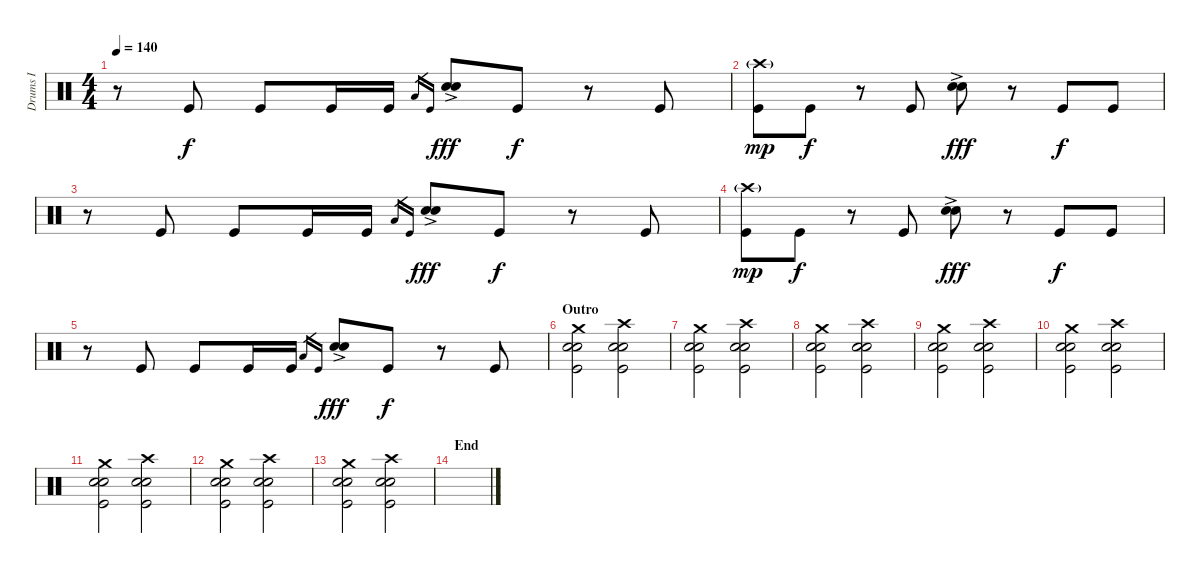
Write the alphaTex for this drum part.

\track ("Drums I" "Drums I") {instrument percussion}
\staff {score}
\articulation defaults
\ts (4 4)
\tempo 140
\clef neutral
\ks c
r.8{dy f} "Kick (hit)".8 "Kick (hit)".8 "Kick (hit)".16 "Kick (hit)".16 "Low Floor Tom (hit)".16{gr} "Kick (hit)".16{gr} ("Electric Snare (hit)"{ac} "Snare (hit) 2").8{dy fff} "Kick (hit)".8{dy f} r.8 "Kick (hit)".8 |
("Crash high (hit)"{g} "Kick (hit)").8{dy mp} "Kick (hit)".8{dy f} r.8 "Kick (hit)".8 ("Electric Snare (hit)"{ac} "Snare (hit) 2").8{dy fff} r.8 "Kick (hit)".8{dy f} "Kick (hit)".8 |
r.8 "Kick (hit)".8 "Kick (hit)".8 "Kick (hit)".16 "Kick (hit)".16 "Low Floor Tom (hit)".16{gr} "Kick (hit)".16{gr} ("Electric Snare (hit)"{ac} "Snare (hit) 2").8{dy fff} "Kick (hit)".8{dy f} r.8 "Kick (hit)".8 |
("Crash high (hit)"{g} "Kick (hit)").8{dy mp} "Kick (hit)".8{dy f} r.8 "Kick (hit)".8 ("Electric Snare (hit)"{ac} "Snare (hit) 2").8{dy fff} r.8 "Kick (hit)".8{dy f} "Kick (hit)".8 |
r.8 "Kick (hit)".8 "Kick (hit)".8 "Kick (hit)".16 "Kick (hit)".16 "Low Floor Tom (hit)".16{gr} "Kick (hit)".16{gr} ("Electric Snare (hit)"{ac} "Snare (hit) 2").8{dy fff} "Kick (hit)".8{dy f} r.8 "Kick (hit)".8 |
\section ("" "Outro")
("Crash medium (hit)" "Electric Snare (hit)" "Snare (hit) 2" "Kick (hit)").2 ("Crash high (hit)" "Electric Snare (hit)" "Snare (hit) 2" "Kick (hit)").2 |
("Crash medium (hit)" "Electric Snare (hit)" "Snare (hit) 2" "Kick (hit)").2 ("Crash high (hit)" "Electric Snare (hit)" "Snare (hit) 2" "Kick (hit)").2 |
("Crash medium (hit)" "Electric Snare (hit)" "Snare (hit) 2" "Kick (hit)").2 ("Crash high (hit)" "Electric Snare (hit)" "Snare (hit) 2" "Kick (hit)").2 |
("Crash medium (hit)" "Electric Snare (hit)" "Snare (hit) 2" "Kick (hit)").2 ("Crash high (hit)" "Electric Snare (hit)" "Snare (hit) 2" "Kick (hit)").2 |
("Crash medium (hit)" "Electric Snare (hit)" "Snare (hit) 2" "Kick (hit)").2 ("Crash high (hit)" "Electric Snare (hit)" "Snare (hit) 2" "Kick (hit)").2 |
("Crash medium (hit)" "Electric Snare (hit)" "Snare (hit) 2" "Kick (hit)").2 ("Crash high (hit)" "Electric Snare (hit)" "Snare (hit) 2" "Kick (hit)").2 |
("Crash medium (hit)" "Electric Snare (hit)" "Snare (hit) 2" "Kick (hit)").2 ("Crash high (hit)" "Electric Snare (hit)" "Snare (hit) 2" "Kick (hit)").2 |
("Crash medium (hit)" "Electric Snare (hit)" "Snare (hit) 2" "Kick (hit)").2 ("Crash high (hit)" "Electric Snare (hit)" "Snare (hit) 2" "Kick (hit)").2 |
\section ("" "End")
